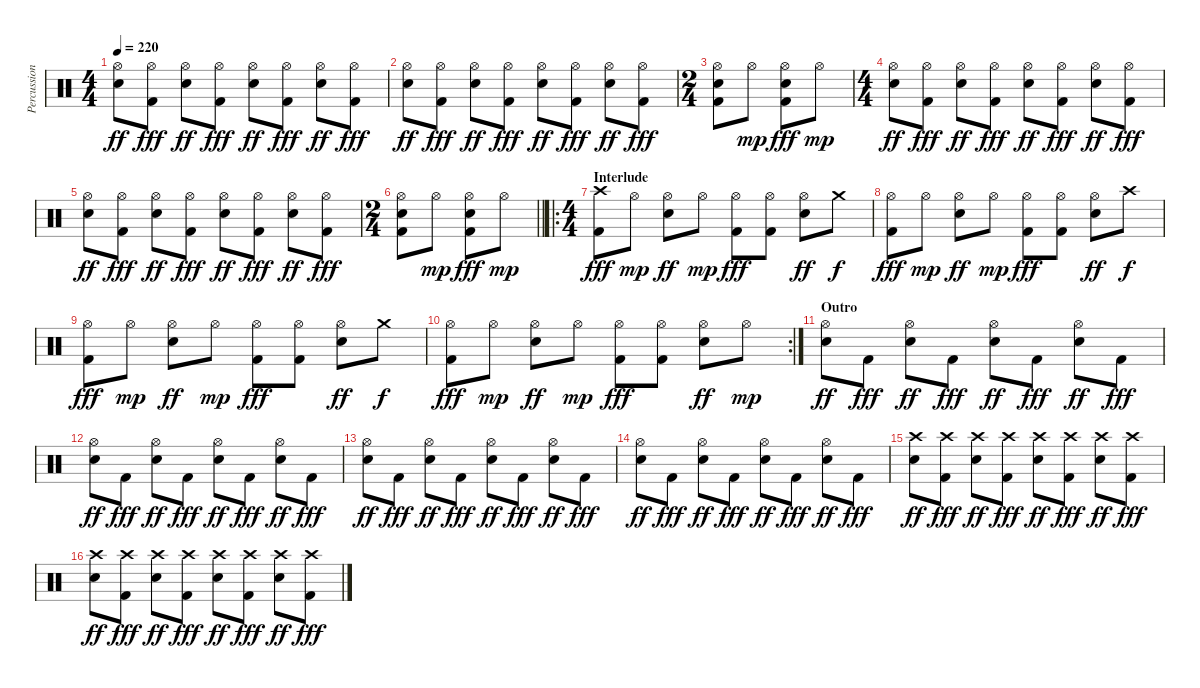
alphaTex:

\track ("Percussion" "Percussion") {instrument percussion}
\staff {score}
\articulation defaults
\ts (4 4)
\tempo 220
\clef neutral
\ks c
("Hi-Hat (open)" "Electric Snare (hit)").8{dy ff} ("Hi-Hat (open)" "Kick (hit) 2").8{dy fff} ("Hi-Hat (open)" "Electric Snare (hit)").8{dy ff} ("Hi-Hat (open)" "Kick (hit) 2").8{dy fff} ("Hi-Hat (open)" "Electric Snare (hit)").8{dy ff} ("Hi-Hat (open)" "Kick (hit) 2").8{dy fff} ("Hi-Hat (open)" "Electric Snare (hit)").8{dy ff} ("Hi-Hat (open)" "Kick (hit) 2").8{dy fff} |
("Hi-Hat (open)" "Electric Snare (hit)").8{dy ff} ("Hi-Hat (open)" "Kick (hit) 2").8{dy fff} ("Hi-Hat (open)" "Electric Snare (hit)").8{dy ff} ("Hi-Hat (open)" "Kick (hit) 2").8{dy fff} ("Hi-Hat (open)" "Electric Snare (hit)").8{dy ff} ("Hi-Hat (open)" "Kick (hit) 2").8{dy fff} ("Hi-Hat (open)" "Electric Snare (hit)").8{dy ff} ("Hi-Hat (open)" "Kick (hit) 2").8{dy fff} |
\ts (2 4)
("Hi-Hat (open)" "Electric Snare (hit)" "Kick (hit) 2").8 "Hi-Hat (open)".8{dy mp} ("Hi-Hat (open)" "Electric Snare (hit)" "Kick (hit) 2").8{dy fff} "Hi-Hat (open)".8{dy mp} |
\ts (4 4)
("Hi-Hat (open)" "Electric Snare (hit)").8{dy ff} ("Hi-Hat (open)" "Kick (hit) 2").8{dy fff} ("Hi-Hat (open)" "Electric Snare (hit)").8{dy ff} ("Hi-Hat (open)" "Kick (hit) 2").8{dy fff} ("Hi-Hat (open)" "Electric Snare (hit)").8{dy ff} ("Hi-Hat (open)" "Kick (hit) 2").8{dy fff} ("Hi-Hat (open)" "Electric Snare (hit)").8{dy ff} ("Hi-Hat (open)" "Kick (hit) 2").8{dy fff} |
("Hi-Hat (open)" "Electric Snare (hit)").8{dy ff} ("Hi-Hat (open)" "Kick (hit) 2").8{dy fff} ("Hi-Hat (open)" "Electric Snare (hit)").8{dy ff} ("Hi-Hat (open)" "Kick (hit) 2").8{dy fff} ("Hi-Hat (open)" "Electric Snare (hit)").8{dy ff} ("Hi-Hat (open)" "Kick (hit) 2").8{dy fff} ("Hi-Hat (open)" "Electric Snare (hit)").8{dy ff} ("Hi-Hat (open)" "Kick (hit) 2").8{dy fff} |
\ts (2 4)
\barLineRight lightlight
("Hi-Hat (open)" "Electric Snare (hit)" "Kick (hit) 2").8 "Hi-Hat (open)".8{dy mp} ("Hi-Hat (open)" "Electric Snare (hit)" "Kick (hit) 2").8{dy fff} "Hi-Hat (open)".8{dy mp} |
\ro
\ts (4 4)
\section ("" "Interlude")
("Crash high (hit)" "Kick (hit) 2").8{dy fff} "Hi-Hat (open)".8{dy mp} ("Hi-Hat (open)" "Electric Snare (hit)").8{dy ff} "Hi-Hat (open)".8{dy mp} ("Hi-Hat (open)" "Kick (hit) 2").8{dy fff} ("Hi-Hat (open)" "Kick (hit) 2").8 ("Hi-Hat (open)" "Electric Snare (hit)").8{dy ff} "Crash medium (hit)".8{dy f} |
("Hi-Hat (open)" "Kick (hit) 2").8{dy fff} "Hi-Hat (open)".8{dy mp} ("Hi-Hat (open)" "Electric Snare (hit)").8{dy ff} "Hi-Hat (open)".8{dy mp} ("Hi-Hat (open)" "Kick (hit) 2").8{dy fff} ("Hi-Hat (open)" "Kick (hit) 2").8 ("Hi-Hat (open)" "Electric Snare (hit)").8{dy ff} "Crash high (hit)".8{dy f} |
("Hi-Hat (open)" "Kick (hit) 2").8{dy fff} "Hi-Hat (open)".8{dy mp} ("Hi-Hat (open)" "Electric Snare (hit)").8{dy ff} "Hi-Hat (open)".8{dy mp} ("Hi-Hat (open)" "Kick (hit) 2").8{dy fff} ("Hi-Hat (open)" "Kick (hit) 2").8 ("Hi-Hat (open)" "Electric Snare (hit)").8{dy ff} "Crash medium (hit)".8{dy f} |
\rc 2
("Hi-Hat (open)" "Kick (hit) 2").8{dy fff} "Hi-Hat (open)".8{dy mp} ("Hi-Hat (open)" "Electric Snare (hit)").8{dy ff} "Hi-Hat (open)".8{dy mp} ("Hi-Hat (open)" "Kick (hit) 2").8{dy fff} ("Hi-Hat (open)" "Kick (hit) 2").8 ("Hi-Hat (open)" "Electric Snare (hit)").8{dy ff} "Hi-Hat (open)".8{dy mp} |
\section ("" "Outro")
("Hi-Hat (open)" "Electric Snare (hit)").8{dy ff} "Kick (hit) 2".8{dy fff} ("Hi-Hat (open)" "Electric Snare (hit)").8{dy ff} "Kick (hit) 2".8{dy fff} ("Hi-Hat (open)" "Electric Snare (hit)").8{dy ff} "Kick (hit) 2".8{dy fff} ("Hi-Hat (open)" "Electric Snare (hit)").8{dy ff} "Kick (hit) 2".8{dy fff} |
("Hi-Hat (open)" "Electric Snare (hit)").8{dy ff} "Kick (hit) 2".8{dy fff} ("Hi-Hat (open)" "Electric Snare (hit)").8{dy ff} "Kick (hit) 2".8{dy fff} ("Hi-Hat (open)" "Electric Snare (hit)").8{dy ff} "Kick (hit) 2".8{dy fff} ("Hi-Hat (open)" "Electric Snare (hit)").8{dy ff} "Kick (hit) 2".8{dy fff} |
("Hi-Hat (open)" "Electric Snare (hit)").8{dy ff} "Kick (hit) 2".8{dy fff} ("Hi-Hat (open)" "Electric Snare (hit)").8{dy ff} "Kick (hit) 2".8{dy fff} ("Hi-Hat (open)" "Electric Snare (hit)").8{dy ff} "Kick (hit) 2".8{dy fff} ("Hi-Hat (open)" "Electric Snare (hit)").8{dy ff} "Kick (hit) 2".8{dy fff} |
("Hi-Hat (open)" "Electric Snare (hit)").8{dy ff} "Kick (hit) 2".8{dy fff} ("Hi-Hat (open)" "Electric Snare (hit)").8{dy ff} "Kick (hit) 2".8{dy fff} ("Hi-Hat (open)" "Electric Snare (hit)").8{dy ff} "Kick (hit) 2".8{dy fff} ("Hi-Hat (open)" "Electric Snare (hit)").8{dy ff} "Kick (hit) 2".8{dy fff} |
("Crash high (hit)" "Electric Snare (hit)").8{dy ff} ("Crash high (hit)" "Kick (hit) 2").8{dy fff} ("Crash high (hit)" "Electric Snare (hit)").8{dy ff} ("Crash high (hit)" "Kick (hit) 2").8{dy fff} ("Crash high (hit)" "Electric Snare (hit)").8{dy ff} ("Crash high (hit)" "Kick (hit) 2").8{dy fff} ("Crash high (hit)" "Electric Snare (hit)").8{dy ff} ("Crash high (hit)" "Kick (hit) 2").8{dy fff} |
("Crash high (hit)" "Electric Snare (hit)").8{dy ff} ("Crash high (hit)" "Kick (hit) 2").8{dy fff} ("Crash high (hit)" "Electric Snare (hit)").8{dy ff} ("Crash high (hit)" "Kick (hit) 2").8{dy fff} ("Crash high (hit)" "Electric Snare (hit)").8{dy ff} ("Crash high (hit)" "Kick (hit) 2").8{dy fff} ("Crash high (hit)" "Electric Snare (hit)").8{dy ff} ("Crash high (hit)" "Kick (hit) 2").8{dy fff}
